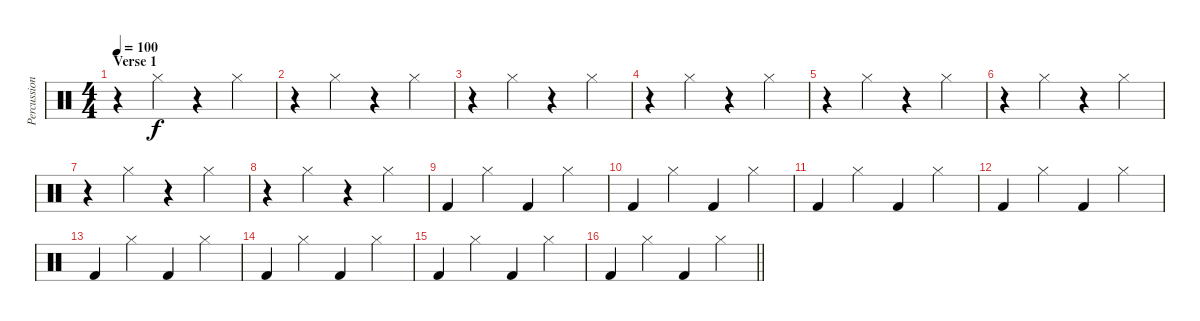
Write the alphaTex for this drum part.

\track ("Percussion" "Percussion") {instrument percussion}
\staff {score}
\articulation defaults
\ts (4 4)
\section ("" "Verse 1")
\tempo 100
\clef neutral
\ks c
r.4{dy f} "Hi-Hat (closed)".4 r.4 "Hi-Hat (closed)".4 |
r.4 "Hi-Hat (closed)".4 r.4 "Hi-Hat (closed)".4 |
r.4 "Hi-Hat (closed)".4 r.4 "Hi-Hat (closed)".4 |
r.4 "Hi-Hat (closed)".4 r.4 "Hi-Hat (closed)".4 |
r.4 "Hi-Hat (closed)".4 r.4 "Hi-Hat (closed)".4 |
r.4 "Hi-Hat (closed)".4 r.4 "Hi-Hat (closed)".4 |
r.4 "Hi-Hat (closed)".4 r.4 "Hi-Hat (closed)".4 |
r.4 "Hi-Hat (closed)".4 r.4 "Hi-Hat (closed)".4 |
"Kick (hit) 2".4 "Hi-Hat (closed)".4 "Kick (hit) 2".4 "Hi-Hat (closed)".4 |
"Kick (hit) 2".4 "Hi-Hat (closed)".4 "Kick (hit) 2".4 "Hi-Hat (closed)".4 |
"Kick (hit) 2".4 "Hi-Hat (closed)".4 "Kick (hit) 2".4 "Hi-Hat (closed)".4 |
"Kick (hit) 2".4 "Hi-Hat (closed)".4 "Kick (hit) 2".4 "Hi-Hat (closed)".4 |
"Kick (hit) 2".4 "Hi-Hat (closed)".4 "Kick (hit) 2".4 "Hi-Hat (closed)".4 |
"Kick (hit) 2".4 "Hi-Hat (closed)".4 "Kick (hit) 2".4 "Hi-Hat (closed)".4 |
"Kick (hit) 2".4 "Hi-Hat (closed)".4 "Kick (hit) 2".4 "Hi-Hat (closed)".4 |
\barLineRight lightlight "Kick (hit) 2".4 "Hi-Hat (closed)".4 "Kick (hit) 2".4 "Hi-Hat (closed)".4
